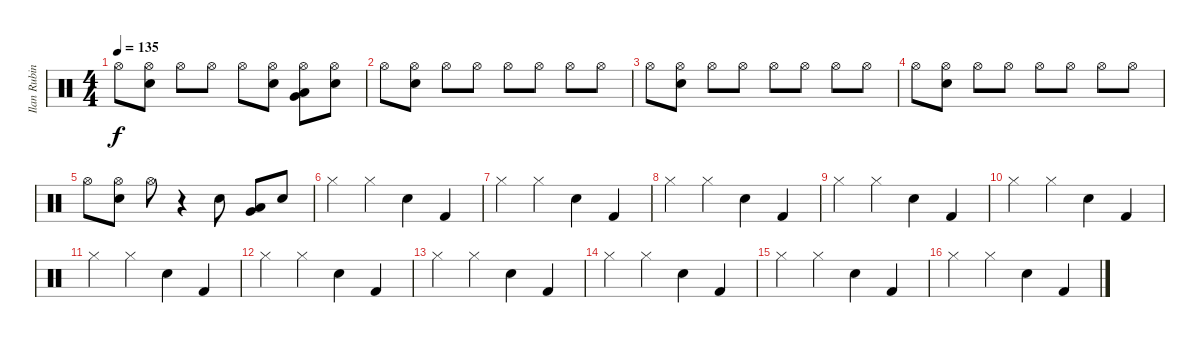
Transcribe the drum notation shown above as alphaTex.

\track ("Ilan Rubin" "Ilan Rubin") {instrument percussion}
\staff {score}
\articulation defaults
\ts (4 4)
\tempo 135
\clef neutral
\ks c "Hi-Hat (open)".8{dy f}
("Hi-Hat (open)" "Electric Snare (hit)").8 "Hi-Hat (open)".8 "Hi-Hat (open)".8 "Hi-Hat (open)".8 ("Hi-Hat (open)" "Electric Snare (hit)").8 ("Hi-Hat (open)" "Very Low Tom (hit)" "Low Tom (hit)").8 ("Hi-Hat (open)" "Electric Snare (hit)").8 |
"Hi-Hat (open)".8 ("Hi-Hat (open)" "Electric Snare (hit)").8 "Hi-Hat (open)".8 "Hi-Hat (open)".8 "Hi-Hat (open)".8 "Hi-Hat (open)".8 "Hi-Hat (open)".8 "Hi-Hat (open)".8 |
"Hi-Hat (open)".8 ("Hi-Hat (open)" "Electric Snare (hit)").8 "Hi-Hat (open)".8 "Hi-Hat (open)".8 "Hi-Hat (open)".8 "Hi-Hat (open)".8 "Hi-Hat (open)".8 "Hi-Hat (open)".8 |
"Hi-Hat (open)".8 ("Hi-Hat (open)" "Electric Snare (hit)").8 "Hi-Hat (open)".8 "Hi-Hat (open)".8 "Hi-Hat (open)".8 "Hi-Hat (open)".8 "Hi-Hat (open)".8 "Hi-Hat (open)".8 |
"Hi-Hat (open)".8 ("Hi-Hat (open)" "Electric Snare (hit)").8 "Hi-Hat (open)".8 r.4 "Electric Snare (hit)".8 ("Very Low Tom (hit)" "Low Tom (hit)").8 "Electric Snare (hit)".8 |
"Hi-Hat (closed)".4 "Hi-Hat (closed)".4 "Snare (hit) 2".4 "Kick (hit) 2".4 |
"Hi-Hat (closed)".4 "Hi-Hat (closed)".4 "Electric Snare (hit)".4 "Kick (hit) 2".4 |
"Hi-Hat (closed)".4 "Hi-Hat (closed)".4 "Snare (hit) 2".4 "Kick (hit) 2".4 |
"Hi-Hat (closed)".4 "Hi-Hat (closed)".4 "Electric Snare (hit)".4 "Kick (hit) 2".4 |
"Hi-Hat (closed)".4 "Hi-Hat (closed)".4 "Snare (hit) 2".4 "Kick (hit) 2".4 |
"Hi-Hat (closed)".4 "Hi-Hat (closed)".4 "Electric Snare (hit)".4 "Kick (hit) 2".4 |
"Hi-Hat (closed)".4 "Hi-Hat (closed)".4 "Snare (hit) 2".4 "Kick (hit) 2".4 |
"Hi-Hat (closed)".4 "Hi-Hat (closed)".4 "Electric Snare (hit)".4 "Kick (hit) 2".4 |
"Hi-Hat (closed)".4 "Hi-Hat (closed)".4 "Snare (hit) 2".4 "Kick (hit) 2".4 |
"Hi-Hat (closed)".4 "Hi-Hat (closed)".4 "Electric Snare (hit)".4 "Kick (hit) 2".4 |
"Hi-Hat (closed)".4 "Hi-Hat (closed)".4 "Snare (hit) 2".4 "Kick (hit) 2".4
